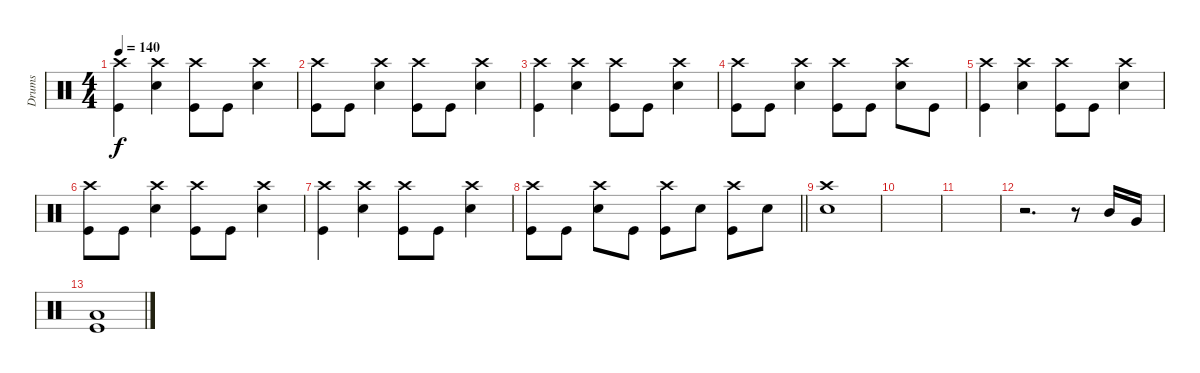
\track ("Drums" "Drums") {instrument percussion}
\staff {score}
\articulation defaults
\ts (4 4)
\tempo 140
\clef neutral
\ks c
("Crash high (hit)" "Kick (hit)").4{dy f} ("Crash high (hit)" "Snare (hit) 2").4 ("Crash high (hit)" "Kick (hit)").8 "Kick (hit)".8 ("Crash high (hit)" "Snare (hit) 2").4 |
("Crash high (hit)" "Kick (hit)").8 "Kick (hit)".8 ("Crash high (hit)" "Snare (hit) 2").4 ("Crash high (hit)" "Kick (hit)").8 "Kick (hit)".8 ("Crash high (hit)" "Snare (hit) 2").4 |
("Crash high (hit)" "Kick (hit)").4 ("Crash high (hit)" "Snare (hit) 2").4 ("Crash high (hit)" "Kick (hit)").8 "Kick (hit)".8 ("Crash high (hit)" "Snare (hit) 2").4 |
("Crash high (hit)" "Kick (hit)").8 "Kick (hit)".8 ("Crash high (hit)" "Snare (hit) 2").4 ("Crash high (hit)" "Kick (hit)").8 "Kick (hit)".8 ("Crash high (hit)" "Snare (hit) 2").8 "Kick (hit)".8 |
("Crash high (hit)" "Kick (hit)").4 ("Crash high (hit)" "Snare (hit) 2").4 ("Crash high (hit)" "Kick (hit)").8 "Kick (hit)".8 ("Crash high (hit)" "Snare (hit) 2").4 |
("Crash high (hit)" "Kick (hit)").8 "Kick (hit)".8 ("Crash high (hit)" "Snare (hit) 2").4 ("Crash high (hit)" "Kick (hit)").8 "Kick (hit)".8 ("Crash high (hit)" "Snare (hit) 2").4 |
("Crash high (hit)" "Kick (hit)").4 ("Crash high (hit)" "Snare (hit) 2").4 ("Crash high (hit)" "Kick (hit)").8 "Kick (hit)".8 ("Crash high (hit)" "Snare (hit) 2").4 |
\barLineRight lightlight
("Crash high (hit)" "Kick (hit)").8 "Kick (hit)".8 ("Crash high (hit)" "Snare (hit) 2").8 "Kick (hit)".8 ("Crash high (hit)" "Kick (hit)").8 "Snare (hit) 2".8 ("Crash high (hit)" "Kick (hit)").8 "Snare (hit) 2".8 |
("Crash high (hit)" "Snare (hit) 2").1 |
|
|
r.2{d} r.8 "Mid Tom (hit)".16 "Very Low Tom (hit)".16 |
("Low Floor Tom (hit)" "Kick (hit)").1
